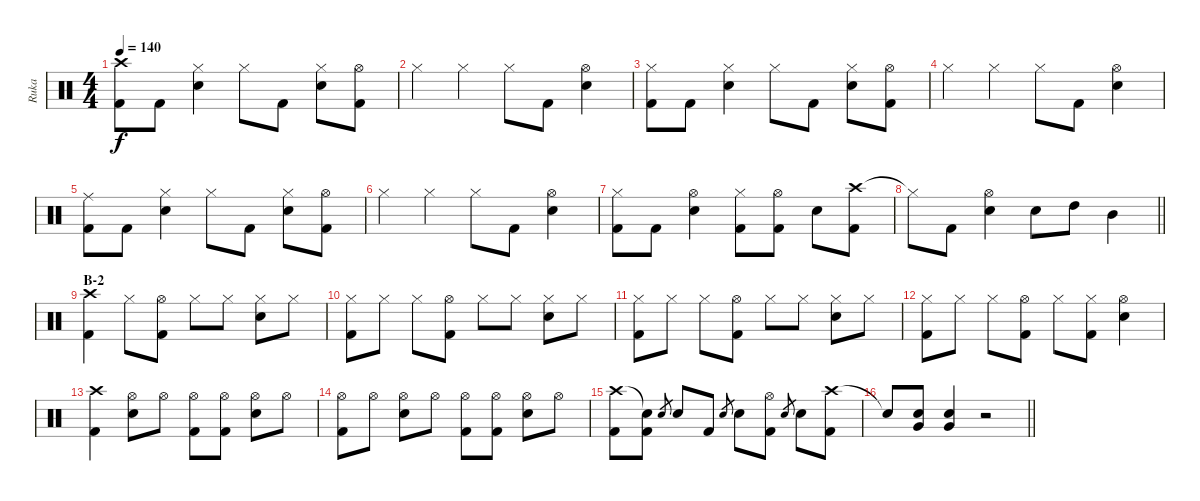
\track ("Ruka" "Ruka") {instrument percussion}
\staff {score}
\articulation defaults
\ts (4 4)
\tempo 140
\clef neutral
\ks c
("Crash high (hit)" "Kick (hit) 2").8{dy f} "Kick (hit) 2".8 ("Hi-Hat (closed)" "Snare (hit) 2").4 "Hi-Hat (closed)".8 "Kick (hit) 2".8 ("Hi-Hat (closed)" "Snare (hit) 2").8 ("Hi-Hat (open)" "Kick (hit) 2").8 |
"Hi-Hat (closed)".4 "Hi-Hat (closed)".4 "Hi-Hat (closed)".8 "Kick (hit) 2".8 ("Hi-Hat (open)" "Snare (hit) 2").4 |
("Hi-Hat (closed)" "Kick (hit) 2").8 "Kick (hit) 2".8 ("Hi-Hat (closed)" "Snare (hit) 2").4 "Hi-Hat (closed)".8 "Kick (hit) 2".8 ("Hi-Hat (closed)" "Snare (hit) 2").8 ("Hi-Hat (open)" "Kick (hit) 2").8 |
"Hi-Hat (closed)".4 "Hi-Hat (closed)".4 "Hi-Hat (closed)".8 "Kick (hit) 2".8 ("Hi-Hat (open)" "Snare (hit) 2").4 |
("Ride (middle)" "Kick (hit) 2").8 "Kick (hit) 2".8 ("Hi-Hat (closed)" "Snare (hit) 2").4 "Hi-Hat (closed)".8 "Kick (hit) 2".8 ("Hi-Hat (closed)" "Snare (hit) 2").8 ("Hi-Hat (open)" "Kick (hit) 2").8 |
"Hi-Hat (closed)".4 "Hi-Hat (closed)".4 "Hi-Hat (closed)".8 "Kick (hit) 2".8 ("Hi-Hat (open)" "Snare (hit) 2").4 |
("Hi-Hat (closed)" "Kick (hit) 2").8 "Kick (hit) 2".8 ("Hi-Hat (open)" "Snare (hit) 2").4 ("Hi-Hat (closed)" "Kick (hit) 2").8 ("Hi-Hat (open)" "Kick (hit) 2").8 "Snare (hit) 2".8 ("Crash high (hit)" "Kick (hit) 2").8 |
\barLineRight lightlight "Hi-Hat (closed)"{t}.8 "Kick (hit) 2".8
("Hi-Hat (open)" "Snare (hit) 2").4 "Snare (hit) 2".8 "High Tom (hit)".8 "Mid Tom (hit)".4 |
\section ("" "B-2")
("Crash high (hit)" "Kick (hit) 2").4 "Hi-Hat (closed)".8 ("Hi-Hat (open)" "Kick (hit) 2").8 "Hi-Hat (closed)".8 "Hi-Hat (closed)".8 ("Hi-Hat (closed)" "Snare (hit) 2").8 "Hi-Hat (closed)".8 |
("Hi-Hat (closed)" "Kick (hit) 2").8 "Hi-Hat (closed)".8 "Hi-Hat (closed)".8 ("Hi-Hat (open)" "Kick (hit) 2").8 "Hi-Hat (closed)".8 "Hi-Hat (closed)".8 ("Hi-Hat (closed)" "Snare (hit) 2").8 "Hi-Hat (closed)".8 |
("Hi-Hat (closed)" "Kick (hit) 2").8 "Hi-Hat (closed)".8 "Hi-Hat (closed)".8 ("Hi-Hat (open)" "Kick (hit) 2").8 "Hi-Hat (closed)".8 "Hi-Hat (closed)".8 ("Hi-Hat (closed)" "Snare (hit) 2").8 "Hi-Hat (closed)".8 |
("Hi-Hat (closed)" "Kick (hit) 2").8 "Hi-Hat (closed)".8 "Hi-Hat (closed)".8 ("Hi-Hat (open)" "Kick (hit) 2").8 "Hi-Hat (closed)".8 ("Hi-Hat (closed)" "Kick (hit) 2").8 ("Hi-Hat (open)" "Snare (hit) 2").4 |
("Crash high (hit)" "Kick (hit) 2").4 ("Hi-Hat (open)" "Snare (hit) 2").8 "Hi-Hat (open)".8 ("Hi-Hat (open)" "Kick (hit) 2").8 ("Hi-Hat (open)" "Kick (hit) 2").8 ("Hi-Hat (open)" "Snare (hit) 2").8 "Hi-Hat (open)".8 |
("Hi-Hat (open)" "Kick (hit) 2").8 "Hi-Hat (open)".8 ("Hi-Hat (open)" "Snare (hit) 2").8 "Hi-Hat (open)".8 ("Hi-Hat (open)" "Kick (hit) 2").8 ("Hi-Hat (open)" "Kick (hit) 2").8 ("Hi-Hat (open)" "Snare (hit) 2").8 "Hi-Hat (open)".8 |
("Crash high (hit)" "Kick (hit) 2").8 ("Snare (hit)"{t} "Kick (hit) 2").8 "Snare (hit) 2".8{gr} "Snare (hit) 2".8 "Kick (hit) 2".8 "Snare (hit) 2".8{gr} "Snare (hit) 2".8 ("Hi-Hat (open)" "Kick (hit) 2").8 "Snare (hit) 2".8{gr} "Snare (hit) 2".8 ("Crash high (hit)" "Kick (hit) 2").8 |
\barLineRight lightlight "Snare (hit)"{t}.8
("Very Low Tom (hit)" "Snare (hit) 2").8 ("Very Low Tom (hit)" "Snare (hit) 2").4 r.2
